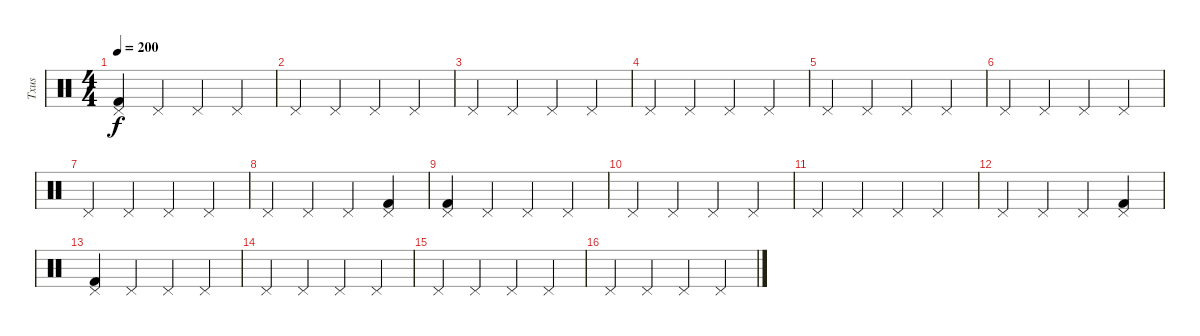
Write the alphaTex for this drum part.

\track ("Txus" "Txus") {instrument percussion}
\staff
\articulation defaults
\ts (4 4)
\tempo 200
\clef neutral
\ks c
("Pedal Hi-Hat (hit)" "Kick (hit) 2").4{dy f} "Pedal Hi-Hat (hit)".4 "Pedal Hi-Hat (hit)".4 "Pedal Hi-Hat (hit)".4 |
"Pedal Hi-Hat (hit)".4 "Pedal Hi-Hat (hit)".4 "Pedal Hi-Hat (hit)".4 "Pedal Hi-Hat (hit)".4 |
"Pedal Hi-Hat (hit)".4 "Pedal Hi-Hat (hit)".4 "Pedal Hi-Hat (hit)".4 "Pedal Hi-Hat (hit)".4 |
"Pedal Hi-Hat (hit)".4 "Pedal Hi-Hat (hit)".4 "Pedal Hi-Hat (hit)".4 "Pedal Hi-Hat (hit)".4 |
"Pedal Hi-Hat (hit)".4 "Pedal Hi-Hat (hit)".4 "Pedal Hi-Hat (hit)".4 "Pedal Hi-Hat (hit)".4 |
"Pedal Hi-Hat (hit)".4 "Pedal Hi-Hat (hit)".4 "Pedal Hi-Hat (hit)".4 "Pedal Hi-Hat (hit)".4 |
"Pedal Hi-Hat (hit)".4 "Pedal Hi-Hat (hit)".4 "Pedal Hi-Hat (hit)".4 "Pedal Hi-Hat (hit)".4 |
"Pedal Hi-Hat (hit)".4 "Pedal Hi-Hat (hit)".4 "Pedal Hi-Hat (hit)".4 ("Pedal Hi-Hat (hit)" "Kick (hit) 2").4 |
("Pedal Hi-Hat (hit)" "Kick (hit) 2").4 "Pedal Hi-Hat (hit)".4 "Pedal Hi-Hat (hit)".4 "Pedal Hi-Hat (hit)".4 |
"Pedal Hi-Hat (hit)".4 "Pedal Hi-Hat (hit)".4 "Pedal Hi-Hat (hit)".4 "Pedal Hi-Hat (hit)".4 |
"Pedal Hi-Hat (hit)".4 "Pedal Hi-Hat (hit)".4 "Pedal Hi-Hat (hit)".4 "Pedal Hi-Hat (hit)".4 |
"Pedal Hi-Hat (hit)".4 "Pedal Hi-Hat (hit)".4 "Pedal Hi-Hat (hit)".4 ("Pedal Hi-Hat (hit)" "Kick (hit) 2").4 |
("Pedal Hi-Hat (hit)" "Kick (hit) 2").4 "Pedal Hi-Hat (hit)".4 "Pedal Hi-Hat (hit)".4 "Pedal Hi-Hat (hit)".4 |
"Pedal Hi-Hat (hit)".4 "Pedal Hi-Hat (hit)".4 "Pedal Hi-Hat (hit)".4 "Pedal Hi-Hat (hit)".4 |
"Pedal Hi-Hat (hit)".4 "Pedal Hi-Hat (hit)".4 "Pedal Hi-Hat (hit)".4 "Pedal Hi-Hat (hit)".4 |
"Pedal Hi-Hat (hit)".4 "Pedal Hi-Hat (hit)".4 "Pedal Hi-Hat (hit)".4 "Pedal Hi-Hat (hit)".4
